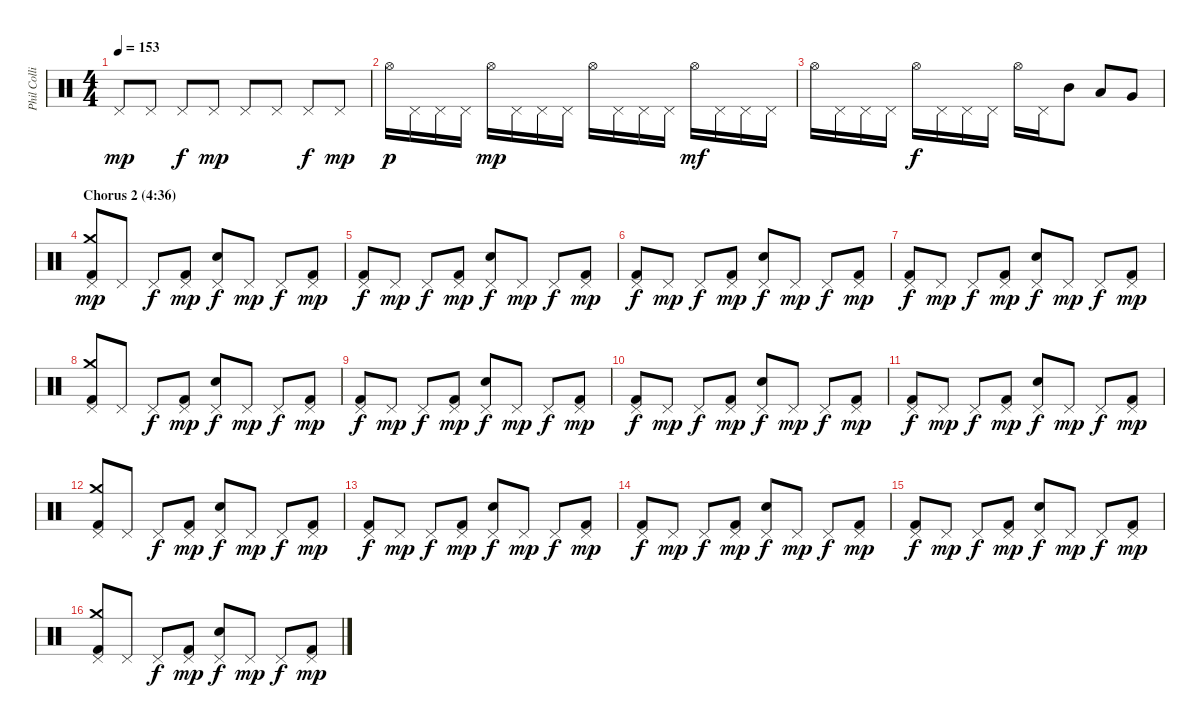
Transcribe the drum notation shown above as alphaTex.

\track ("Phil Collins (drums)" "Phil Colli") {instrument percussion}
\staff {score}
\articulation defaults
\ts (4 4)
\tempo 153
\clef neutral
\ks c "Pedal Hi-Hat (hit)".8{dy mp} "Pedal Hi-Hat (hit)".8 "Pedal Hi-Hat (hit)".8{dy f} "Pedal Hi-Hat (hit)".8{dy mp} "Pedal Hi-Hat (hit)".8 "Pedal Hi-Hat (hit)".8 "Pedal Hi-Hat (hit)".8{dy f} "Pedal Hi-Hat (hit)".8{dy mp}
|
"Hi-Hat (open)".16{dy p} "Pedal Hi-Hat (hit)".16 "Pedal Hi-Hat (hit)".16 "Pedal Hi-Hat (hit)".16 "Hi-Hat (open)".16{dy mp} "Pedal Hi-Hat (hit)".16 "Pedal Hi-Hat (hit)".16 "Pedal Hi-Hat (hit)".16 "Hi-Hat (open)".16 "Pedal Hi-Hat (hit)".16 "Pedal Hi-Hat (hit)".16 "Pedal Hi-Hat (hit)".16 "Hi-Hat (open)".16{dy mf} "Pedal Hi-Hat (hit)".16 "Pedal Hi-Hat (hit)".16 "Pedal Hi-Hat (hit)".16 |
"Hi-Hat (open)".16 "Pedal Hi-Hat (hit)".16 "Pedal Hi-Hat (hit)".16 "Pedal Hi-Hat (hit)".16 "Hi-Hat (open)".16{dy f} "Pedal Hi-Hat (hit)".16 "Pedal Hi-Hat (hit)".16 "Pedal Hi-Hat (hit)".16 "Hi-Hat (open)".16 "Pedal Hi-Hat (hit)".16 "Mid Tom (hit)".8 "Low Tom (hit)".8 "Very Low Tom (hit)".8 |
\section ("" "Chorus 2 (4:36)")
("Crash medium (hit)" "Pedal Hi-Hat (hit)" "Kick (hit) 2").8{dy mp} "Pedal Hi-Hat (hit)".8 "Pedal Hi-Hat (hit)".8{dy f} ("Pedal Hi-Hat (hit)" "Kick (hit) 2").8{dy mp} ("Pedal Hi-Hat (hit)" "Electric Snare (hit)").8{dy f} "Pedal Hi-Hat (hit)".8{dy mp} "Pedal Hi-Hat (hit)".8{dy f} ("Pedal Hi-Hat (hit)" "Kick (hit) 2").8{dy mp} |
("Pedal Hi-Hat (hit)" "Kick (hit) 2").8{dy f} "Pedal Hi-Hat (hit)".8{dy mp} "Pedal Hi-Hat (hit)".8{dy f} ("Pedal Hi-Hat (hit)" "Kick (hit) 2").8{dy mp} ("Pedal Hi-Hat (hit)" "Electric Snare (hit)").8{dy f} "Pedal Hi-Hat (hit)".8{dy mp} "Pedal Hi-Hat (hit)".8{dy f} ("Pedal Hi-Hat (hit)" "Kick (hit) 2").8{dy mp} |
("Pedal Hi-Hat (hit)" "Kick (hit) 2").8{dy f} "Pedal Hi-Hat (hit)".8{dy mp} "Pedal Hi-Hat (hit)".8{dy f} ("Pedal Hi-Hat (hit)" "Kick (hit) 2").8{dy mp} ("Pedal Hi-Hat (hit)" "Electric Snare (hit)").8{dy f} "Pedal Hi-Hat (hit)".8{dy mp} "Pedal Hi-Hat (hit)".8{dy f} ("Pedal Hi-Hat (hit)" "Kick (hit) 2").8{dy mp} |
("Pedal Hi-Hat (hit)" "Kick (hit) 2").8{dy f} "Pedal Hi-Hat (hit)".8{dy mp} "Pedal Hi-Hat (hit)".8{dy f} ("Pedal Hi-Hat (hit)" "Kick (hit) 2").8{dy mp} ("Pedal Hi-Hat (hit)" "Electric Snare (hit)").8{dy f} "Pedal Hi-Hat (hit)".8{dy mp} "Pedal Hi-Hat (hit)".8{dy f} ("Pedal Hi-Hat (hit)" "Kick (hit) 2").8{dy mp} |
("Crash medium (hit)" "Pedal Hi-Hat (hit)" "Kick (hit) 2").8 "Pedal Hi-Hat (hit)".8 "Pedal Hi-Hat (hit)".8{dy f} ("Pedal Hi-Hat (hit)" "Kick (hit) 2").8{dy mp} ("Pedal Hi-Hat (hit)" "Electric Snare (hit)").8{dy f} "Pedal Hi-Hat (hit)".8{dy mp} "Pedal Hi-Hat (hit)".8{dy f} ("Pedal Hi-Hat (hit)" "Kick (hit) 2").8{dy mp} |
("Pedal Hi-Hat (hit)" "Kick (hit) 2").8{dy f} "Pedal Hi-Hat (hit)".8{dy mp} "Pedal Hi-Hat (hit)".8{dy f} ("Pedal Hi-Hat (hit)" "Kick (hit) 2").8{dy mp} ("Pedal Hi-Hat (hit)" "Electric Snare (hit)").8{dy f} "Pedal Hi-Hat (hit)".8{dy mp} "Pedal Hi-Hat (hit)".8{dy f} ("Pedal Hi-Hat (hit)" "Kick (hit) 2").8{dy mp} |
("Pedal Hi-Hat (hit)" "Kick (hit) 2").8{dy f} "Pedal Hi-Hat (hit)".8{dy mp} "Pedal Hi-Hat (hit)".8{dy f} ("Pedal Hi-Hat (hit)" "Kick (hit) 2").8{dy mp} ("Pedal Hi-Hat (hit)" "Electric Snare (hit)").8{dy f} "Pedal Hi-Hat (hit)".8{dy mp} "Pedal Hi-Hat (hit)".8{dy f} ("Pedal Hi-Hat (hit)" "Kick (hit) 2").8{dy mp} |
("Pedal Hi-Hat (hit)" "Kick (hit) 2").8{dy f} "Pedal Hi-Hat (hit)".8{dy mp} "Pedal Hi-Hat (hit)".8{dy f} ("Pedal Hi-Hat (hit)" "Kick (hit) 2").8{dy mp} ("Pedal Hi-Hat (hit)" "Electric Snare (hit)").8{dy f} "Pedal Hi-Hat (hit)".8{dy mp} "Pedal Hi-Hat (hit)".8{dy f} ("Pedal Hi-Hat (hit)" "Kick (hit) 2").8{dy mp} |
("Crash medium (hit)" "Pedal Hi-Hat (hit)" "Kick (hit) 2").8 "Pedal Hi-Hat (hit)".8 "Pedal Hi-Hat (hit)".8{dy f} ("Pedal Hi-Hat (hit)" "Kick (hit) 2").8{dy mp} ("Pedal Hi-Hat (hit)" "Electric Snare (hit)").8{dy f} "Pedal Hi-Hat (hit)".8{dy mp} "Pedal Hi-Hat (hit)".8{dy f} ("Pedal Hi-Hat (hit)" "Kick (hit) 2").8{dy mp} |
("Pedal Hi-Hat (hit)" "Kick (hit) 2").8{dy f} "Pedal Hi-Hat (hit)".8{dy mp} "Pedal Hi-Hat (hit)".8{dy f} ("Pedal Hi-Hat (hit)" "Kick (hit) 2").8{dy mp} ("Pedal Hi-Hat (hit)" "Electric Snare (hit)").8{dy f} "Pedal Hi-Hat (hit)".8{dy mp} "Pedal Hi-Hat (hit)".8{dy f} ("Pedal Hi-Hat (hit)" "Kick (hit) 2").8{dy mp} |
("Pedal Hi-Hat (hit)" "Kick (hit) 2").8{dy f} "Pedal Hi-Hat (hit)".8{dy mp} "Pedal Hi-Hat (hit)".8{dy f} ("Pedal Hi-Hat (hit)" "Kick (hit) 2").8{dy mp} ("Pedal Hi-Hat (hit)" "Electric Snare (hit)").8{dy f} "Pedal Hi-Hat (hit)".8{dy mp} "Pedal Hi-Hat (hit)".8{dy f} ("Pedal Hi-Hat (hit)" "Kick (hit) 2").8{dy mp} |
("Pedal Hi-Hat (hit)" "Kick (hit) 2").8{dy f} "Pedal Hi-Hat (hit)".8{dy mp} "Pedal Hi-Hat (hit)".8{dy f} ("Pedal Hi-Hat (hit)" "Kick (hit) 2").8{dy mp} ("Pedal Hi-Hat (hit)" "Electric Snare (hit)").8{dy f} "Pedal Hi-Hat (hit)".8{dy mp} "Pedal Hi-Hat (hit)".8{dy f} ("Pedal Hi-Hat (hit)" "Kick (hit) 2").8{dy mp} |
("Crash medium (hit)" "Pedal Hi-Hat (hit)" "Kick (hit) 2").8 "Pedal Hi-Hat (hit)".8 "Pedal Hi-Hat (hit)".8{dy f} ("Pedal Hi-Hat (hit)" "Kick (hit) 2").8{dy mp} ("Pedal Hi-Hat (hit)" "Electric Snare (hit)").8{dy f} "Pedal Hi-Hat (hit)".8{dy mp} "Pedal Hi-Hat (hit)".8{dy f} ("Pedal Hi-Hat (hit)" "Kick (hit) 2").8{dy mp}
